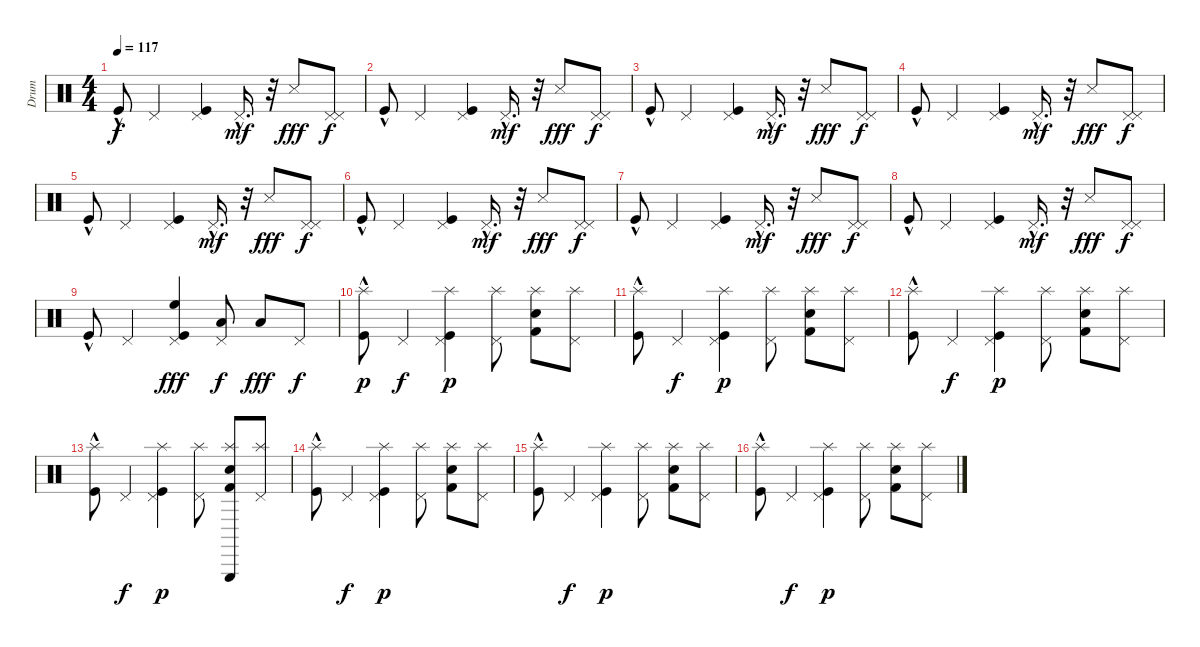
\track ("Drum" "Drum") {instrument percussion}
\staff {score}
\articulation defaults
\ts (4 4)
\tempo 117
\clef neutral
\ks c "Kick (hit)"{hac}.8{dy f} "Pedal Hi-Hat (hit)".4
("Pedal Hi-Hat (hit)" "Kick (hit)").4 "Pedal Hi-Hat (hit)"{hac}.16{d dy mf} r.32 "Snare (side stick) 3".8{dy fff} ("Pedal Hi-Hat (hit)" "Pedal Hi-Hat (hit)").8{dy f} |
"Kick (hit)"{hac}.8 "Pedal Hi-Hat (hit)".4 ("Pedal Hi-Hat (hit)" "Kick (hit)").4 "Pedal Hi-Hat (hit)"{hac}.16{d dy mf} r.32 "Snare (side stick) 3".8{dy fff} ("Pedal Hi-Hat (hit)" "Pedal Hi-Hat (hit)").8{dy f} |
"Kick (hit)"{hac}.8 "Pedal Hi-Hat (hit)".4 ("Pedal Hi-Hat (hit)" "Kick (hit)").4 "Pedal Hi-Hat (hit)"{hac}.16{d dy mf} r.32 "Snare (side stick) 3".8{dy fff} ("Pedal Hi-Hat (hit)" "Pedal Hi-Hat (hit)").8{dy f} |
"Kick (hit)"{hac}.8 "Pedal Hi-Hat (hit)".4 ("Pedal Hi-Hat (hit)" "Kick (hit)").4 "Pedal Hi-Hat (hit)"{hac}.16{d dy mf} r.32 "Snare (side stick) 3".8{dy fff} ("Pedal Hi-Hat (hit)" "Pedal Hi-Hat (hit)").8{dy f} |
"Kick (hit)"{hac}.8 "Pedal Hi-Hat (hit)".4 ("Pedal Hi-Hat (hit)" "Kick (hit)").4 "Pedal Hi-Hat (hit)"{hac}.16{d dy mf} r.32 "Snare (side stick) 3".8{dy fff} ("Pedal Hi-Hat (hit)" "Pedal Hi-Hat (hit)").8{dy f} |
"Kick (hit)"{hac}.8 "Pedal Hi-Hat (hit)".4 ("Pedal Hi-Hat (hit)" "Kick (hit)").4 "Pedal Hi-Hat (hit)"{hac}.16{d dy mf} r.32 "Snare (side stick) 3".8{dy fff} ("Pedal Hi-Hat (hit)" "Pedal Hi-Hat (hit)").8{dy f} |
"Kick (hit)"{hac}.8 "Pedal Hi-Hat (hit)".4 ("Pedal Hi-Hat (hit)" "Kick (hit)").4 "Pedal Hi-Hat (hit)"{hac}.16{d dy mf} r.32 "Snare (side stick) 3".8{dy fff} ("Pedal Hi-Hat (hit)" "Pedal Hi-Hat (hit)").8{dy f} |
"Kick (hit)"{hac}.8 "Pedal Hi-Hat (hit)".4 ("Pedal Hi-Hat (hit)" "Kick (hit)").4 "Pedal Hi-Hat (hit)"{hac}.16{d dy mf} r.32 "Snare (side stick) 3".8{dy fff} ("Pedal Hi-Hat (hit)" "Pedal Hi-Hat (hit)").8{dy f} |
"Kick (hit)"{hac}.8 "Pedal Hi-Hat (hit)".4 ("Pedal Hi-Hat (hit)" "Kick (hit)" "High Floor Tom (hit)").4{dy fff} ("Pedal Hi-Hat (hit)" "Low Tom (hit)").8{dy f} "Low Floor Tom (hit)".8{dy fff} "Pedal Hi-Hat (hit)".8{dy f} |
("Splash (hit)" "Kick (hit)"{hac}).8{dy p} "Pedal Hi-Hat (hit)".4{dy f} ("Splash (hit)" "Pedal Hi-Hat (hit)" "Kick (hit)").4{dy p} ("Splash (hit)" "Pedal Hi-Hat (hit)").8 ("Kick (hit) 2" "Splash (hit)" "Snare (hit) 2").8 ("Splash (hit)" "Pedal Hi-Hat (hit)").8 |
("Splash (hit)" "Kick (hit)"{hac}).8 "Pedal Hi-Hat (hit)".4{dy f} ("Pedal Hi-Hat (hit)" "Splash (hit)" "Kick (hit)").4{dy p} ("Pedal Hi-Hat (hit)" "Splash (hit)").8 ("Splash (hit)" "Kick (hit) 2" "Snare (hit) 2").8 ("Pedal Hi-Hat (hit)" "Splash (hit)").8 |
("Splash (hit)" "Kick (hit)"{hac}).8 "Pedal Hi-Hat (hit)".4{dy f} ("Pedal Hi-Hat (hit)" "Splash (hit)" "Kick (hit)").4{dy p} ("Pedal Hi-Hat (hit)" "Splash (hit)").8 ("Splash (hit)" "Kick (hit) 2" "Snare (hit) 2").8 ("Pedal Hi-Hat (hit)" "Splash (hit)").8 |
("Splash (hit)" "Kick (hit)"{hac}).8 "Pedal Hi-Hat (hit)".4{dy f} ("Splash (hit)" "Pedal Hi-Hat (hit)" "Kick (hit)").4{dy p} ("Splash (hit)" "Pedal Hi-Hat (hit)").8 ("Triangle (hit)" "Splash (hit)" "Kick (hit) 2" "Snare (hit) 2").8 ("Splash (hit)" "Pedal Hi-Hat (hit)").8 |
("Splash (hit)" "Kick (hit)"{hac}).8 "Pedal Hi-Hat (hit)".4{dy f} ("Splash (hit)" "Pedal Hi-Hat (hit)" "Kick (hit)").4{dy p} ("Splash (hit)" "Pedal Hi-Hat (hit)").8 ("Kick (hit) 2" "Splash (hit)" "Snare (hit) 2").8 ("Splash (hit)" "Pedal Hi-Hat (hit)").8 |
("Splash (hit)" "Kick (hit)"{hac}).8 "Pedal Hi-Hat (hit)".4{dy f} ("Splash (hit)" "Pedal Hi-Hat (hit)" "Kick (hit)").4{dy p} ("Splash (hit)" "Pedal Hi-Hat (hit)").8 ("Kick (hit) 2" "Splash (hit)" "Snare (hit) 2").8 ("Splash (hit)" "Pedal Hi-Hat (hit)").8 |
("Splash (hit)" "Kick (hit)"{hac}).8 "Pedal Hi-Hat (hit)".4{dy f} ("Splash (hit)" "Pedal Hi-Hat (hit)" "Kick (hit)").4{dy p} ("Splash (hit)" "Pedal Hi-Hat (hit)").8 ("Kick (hit) 2" "Splash (hit)" "Snare (hit) 2").8 ("Splash (hit)" "Pedal Hi-Hat (hit)").8
